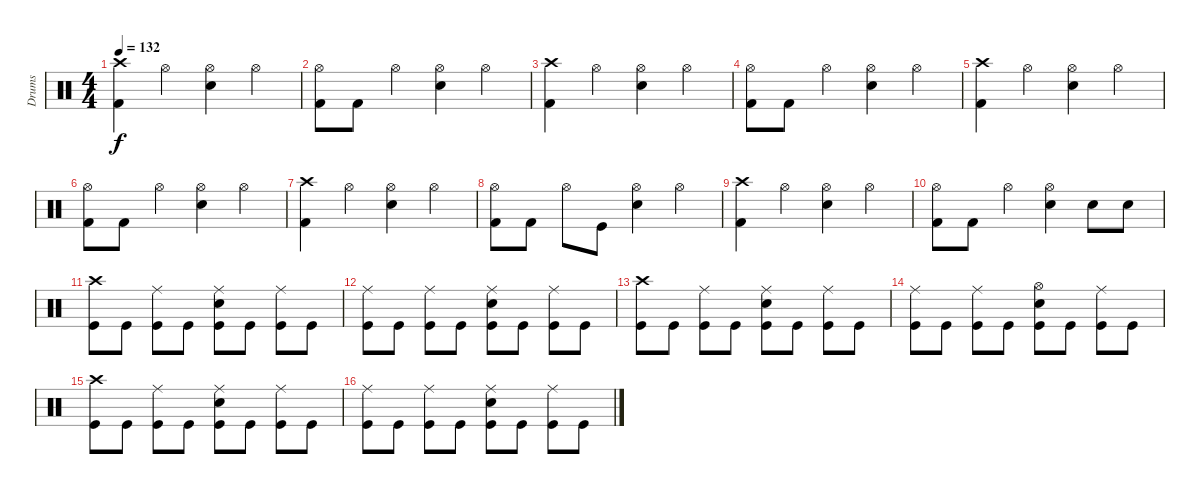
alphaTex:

\track ("Drums" "Drums") {instrument percussion}
\staff {score}
\articulation defaults
\ts (4 4)
\tempo 132
\clef neutral
\ks c
("Crash high (hit)" "Kick (hit) 2").4{dy f} "Hi-Hat (open)".4 ("Snare (hit) 2" "Hi-Hat (open)").4 "Hi-Hat (open)".4 |
("Hi-Hat (open)" "Kick (hit) 2").8 "Kick (hit) 2".8 "Hi-Hat (open)".4 ("Hi-Hat (open)" "Snare (hit) 2").4 "Hi-Hat (open)".4 |
("Crash high (hit)" "Kick (hit) 2").4 "Hi-Hat (open)".4 ("Snare (hit) 2" "Hi-Hat (open)").4 "Hi-Hat (open)".4 |
("Hi-Hat (open)" "Kick (hit) 2").8 "Kick (hit) 2".8 "Hi-Hat (open)".4 ("Hi-Hat (open)" "Snare (hit) 2").4 "Hi-Hat (open)".4 |
("Crash high (hit)" "Kick (hit) 2").4 "Hi-Hat (open)".4 ("Snare (hit) 2" "Hi-Hat (open)").4 "Hi-Hat (open)".4 |
("Hi-Hat (open)" "Kick (hit) 2").8 "Kick (hit) 2".8 "Hi-Hat (open)".4 ("Hi-Hat (open)" "Snare (hit) 2").4 "Hi-Hat (open)".4 |
("Crash high (hit)" "Kick (hit) 2").4 "Hi-Hat (open)".4 ("Snare (hit) 2" "Hi-Hat (open)").4 "Hi-Hat (open)".4 |
("Hi-Hat (open)" "Kick (hit) 2").8 "Kick (hit) 2".8 "Hi-Hat (open)".8 "Kick (hit)".8 ("Hi-Hat (open)" "Snare (hit) 2").4 "Hi-Hat (open)".4 |
("Crash high (hit)" "Kick (hit) 2").4 "Hi-Hat (open)".4 ("Snare (hit) 2" "Hi-Hat (open)").4 "Hi-Hat (open)".4 |
("Hi-Hat (open)" "Kick (hit) 2").8 "Kick (hit) 2".8 "Hi-Hat (open)".4 ("Hi-Hat (open)" "Snare (hit) 2").4 "Snare (hit) 2".8 "Snare (hit) 2".8 |
("Kick (hit)" "Crash high (hit)").8 "Kick (hit)".8 ("Kick (hit)" "Ride (middle)").8 "Kick (hit)".8 ("Kick (hit)" "Ride (middle)" "Snare (hit) 2").8 "Kick (hit)".8 ("Kick (hit)" "Ride (middle)").8 "Kick (hit)".8 |
("Kick (hit)" "Ride (middle)").8 "Kick (hit)".8 ("Kick (hit)" "Ride (middle)").8 "Kick (hit)".8 ("Kick (hit)" "Ride (middle)" "Snare (hit) 2").8 "Kick (hit)".8 ("Kick (hit)" "Ride (middle)").8 "Kick (hit)".8 |
("Kick (hit)" "Crash high (hit)").8 "Kick (hit)".8 ("Kick (hit)" "Ride (middle)").8 "Kick (hit)".8 ("Kick (hit)" "Snare (hit) 2" "Ride (middle)").8 "Kick (hit)".8 ("Kick (hit)" "Ride (middle)").8 "Kick (hit)".8 |
("Kick (hit)" "Ride (middle)").8 "Kick (hit)".8 ("Kick (hit)" "Ride (middle)").8 "Kick (hit)".8 ("Kick (hit)" "Hi-Hat (open)" "Snare (hit) 2").8 "Kick (hit)".8 ("Kick (hit)" "Ride (middle)").8 "Kick (hit)".8 |
("Kick (hit)" "Crash high (hit)").8 "Kick (hit)".8 ("Kick (hit)" "Ride (middle)").8 "Kick (hit)".8 ("Kick (hit)" "Snare (hit) 2" "Ride (middle)").8 "Kick (hit)".8 ("Kick (hit)" "Ride (middle)").8 "Kick (hit)".8 |
("Kick (hit)" "Ride (middle)").8 "Kick (hit)".8 ("Kick (hit)" "Ride (middle)").8 "Kick (hit)".8 ("Kick (hit)" "Ride (middle)" "Snare (hit) 2").8 "Kick (hit)".8 ("Kick (hit)" "Ride (middle)").8 "Kick (hit)".8
